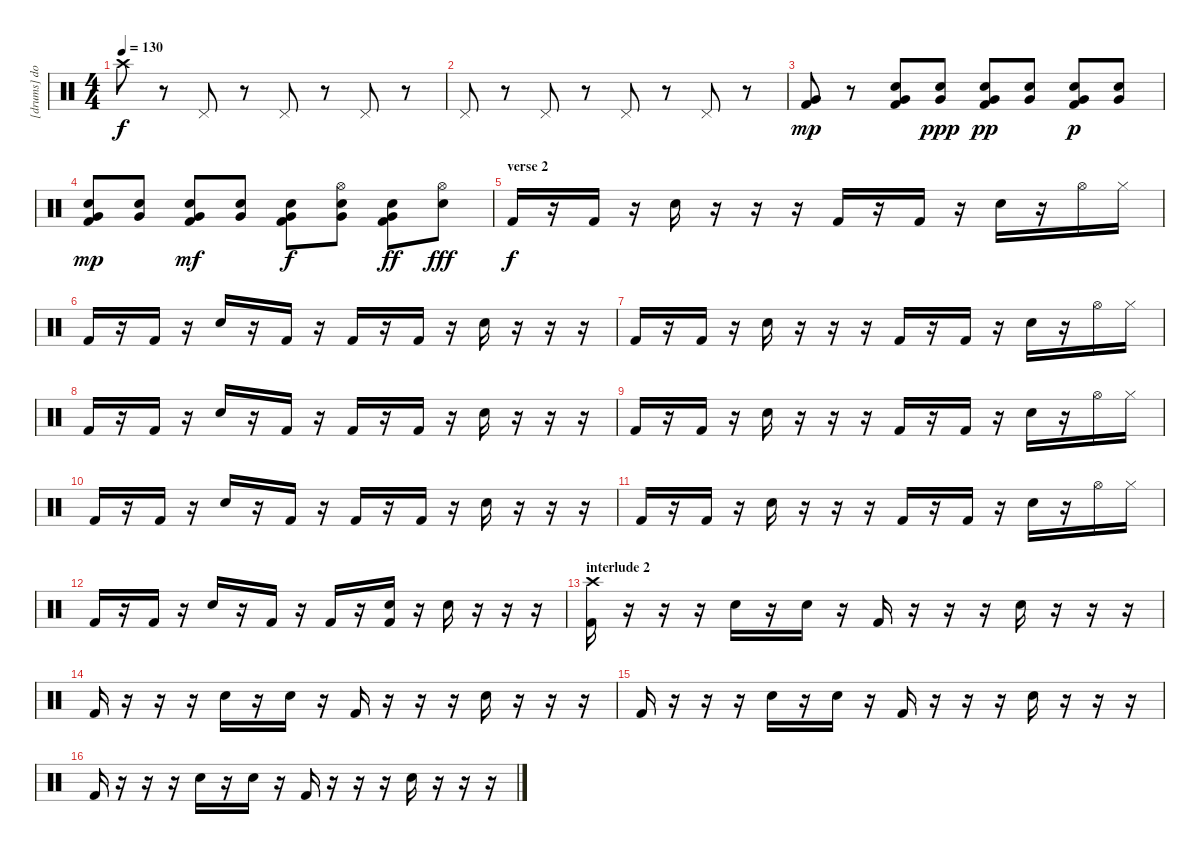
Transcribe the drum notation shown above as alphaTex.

\track ("[drums] dom" "[drums] do") {instrument percussion}
\staff {score}
\articulation defaults
\ts (4 4)
\tempo 130
\clef neutral
\ks c "Crash high (hit)".8{dy f}
r.8 "Pedal Hi-Hat (hit)".8 r.8 "Pedal Hi-Hat (hit)".8 r.8 "Pedal Hi-Hat (hit)".8 r.8 |
"Pedal Hi-Hat (hit)".8 r.8 "Pedal Hi-Hat (hit)".8 r.8 "Pedal Hi-Hat (hit)".8 r.8 "Pedal Hi-Hat (hit)".8 r.8 |
("Very Low Tom (hit)" "Kick (hit) 2").8{dy mp} r.8 ("Very Low Tom (hit)" "Snare (hit) 2" "Kick (hit) 2").8 ("Very Low Tom (hit)" "Snare (hit) 2").8{dy ppp} ("Very Low Tom (hit)" "Snare (hit) 2" "Kick (hit) 2").8{dy pp} ("Very Low Tom (hit)" "Snare (hit) 2").8 ("Very Low Tom (hit)" "Snare (hit) 2" "Kick (hit) 2").8{dy p} ("Very Low Tom (hit)" "Snare (hit) 2").8 |
("Very Low Tom (hit)" "Snare (hit) 2" "Kick (hit) 2").8{dy mp} ("Very Low Tom (hit)" "Snare (hit) 2").8 ("Very Low Tom (hit)" "Snare (hit) 2" "Kick (hit) 2").8{dy mf} ("Very Low Tom (hit)" "Snare (hit) 2").8 ("Very Low Tom (hit)" "Snare (hit) 2" "Kick (hit) 2").8{dy f} ("Very Low Tom (hit)" "Snare (hit) 2" "Hi-Hat (open)").8 ("Very Low Tom (hit)" "Snare (hit) 2" "Kick (hit) 2").8{dy ff} ("Snare (hit) 2" "Hi-Hat (open)").8{dy fff} |
\section ("" "verse 2")
"Kick (hit) 2".16{dy f} r.16 "Kick (hit) 2".16 r.16 "Snare (hit) 2".16 r.16 r.16 r.16 "Kick (hit) 2".16 r.16 "Kick (hit) 2".16 r.16 "Snare (hit) 2".16 r.16 "Hi-Hat (open)".16 "Hi-Hat (closed)".16 |
"Kick (hit) 2".16 r.16 "Kick (hit) 2".16 r.16 "Snare (hit) 2".16 r.16 "Kick (hit) 2".16 r.16 "Kick (hit) 2".16 r.16 "Kick (hit) 2".16 r.16 "Snare (hit) 2".16 r.16 r.16 r.16 |
"Kick (hit) 2".16 r.16 "Kick (hit) 2".16 r.16 "Snare (hit) 2".16 r.16 r.16 r.16 "Kick (hit) 2".16 r.16 "Kick (hit) 2".16 r.16 "Snare (hit) 2".16 r.16 "Hi-Hat (open)".16 "Hi-Hat (closed)".16 |
"Kick (hit) 2".16 r.16 "Kick (hit) 2".16 r.16 "Snare (hit) 2".16 r.16 "Kick (hit) 2".16 r.16 "Kick (hit) 2".16 r.16 "Kick (hit) 2".16 r.16 "Snare (hit) 2".16 r.16 r.16 r.16 |
"Kick (hit) 2".16 r.16 "Kick (hit) 2".16 r.16 "Snare (hit) 2".16 r.16 r.16 r.16 "Kick (hit) 2".16 r.16 "Kick (hit) 2".16 r.16 "Snare (hit) 2".16 r.16 "Hi-Hat (open)".16 "Hi-Hat (closed)".16 |
"Kick (hit) 2".16 r.16 "Kick (hit) 2".16 r.16 "Snare (hit) 2".16 r.16 "Kick (hit) 2".16 r.16 "Kick (hit) 2".16 r.16 "Kick (hit) 2".16 r.16 "Snare (hit) 2".16 r.16 r.16 r.16 |
"Kick (hit) 2".16 r.16 "Kick (hit) 2".16 r.16 "Snare (hit) 2".16 r.16 r.16 r.16 "Kick (hit) 2".16 r.16 "Kick (hit) 2".16 r.16 "Snare (hit) 2".16 r.16 "Hi-Hat (open)".16 "Hi-Hat (closed)".16 |
"Kick (hit) 2".16 r.16 "Kick (hit) 2".16 r.16 "Snare (hit) 2".16 r.16 "Kick (hit) 2".16 r.16 "Kick (hit) 2".16 r.16 ("Snare (hit) 2" "Kick (hit) 2").16 r.16 "Snare (hit) 2".16 r.16 r.16 r.16 |
\section ("" "interlude 2")
("Crash high (hit)" "Kick (hit) 2").16 r.16 r.16 r.16 "Snare (hit) 2".16 r.16 "Snare (hit) 2".16 r.16 "Kick (hit) 2".16 r.16 r.16 r.16 "Snare (hit) 2".16 r.16 r.16 r.16 |
"Kick (hit) 2".16 r.16 r.16 r.16 "Snare (hit) 2".16 r.16 "Snare (hit) 2".16 r.16 "Kick (hit) 2".16 r.16 r.16 r.16 "Snare (hit) 2".16 r.16 r.16 r.16 |
"Kick (hit) 2".16 r.16 r.16 r.16 "Snare (hit) 2".16 r.16 "Snare (hit) 2".16 r.16 "Kick (hit) 2".16 r.16 r.16 r.16 "Snare (hit) 2".16 r.16 r.16 r.16 |
"Kick (hit) 2".16 r.16 r.16 r.16 "Snare (hit) 2".16 r.16 "Snare (hit) 2".16 r.16 "Kick (hit) 2".16 r.16 r.16 r.16 "Snare (hit) 2".16 r.16 r.16 r.16
